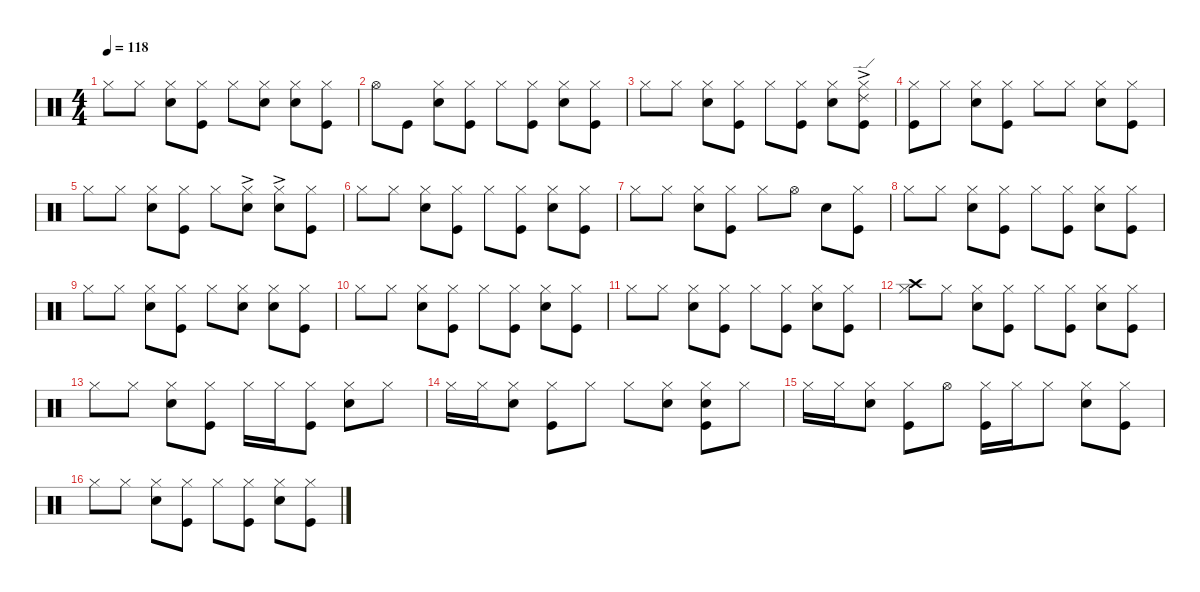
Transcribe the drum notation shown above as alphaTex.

\defaultSystemsLayout 4
\hideDynamics
\bracketExtendMode nobrackets
\singleTrackTrackNamePolicy hidden
\multiTrackTrackNamePolicy hidden
\firstSystemTrackNameMode fullname
\otherSystemsTrackNameOrientation horizontal
\track ("Drums" "drm.") {instrument percussion}
\staff {score}
\articulation defaults
\ts (4 4)
\tempo 118
\clef neutral
\ks c "Hi-Hat (closed)".8{dy f beam Down} "Hi-Hat (closed)".8{beam Down}
("Hi-Hat (closed)" "Snare (hit) 2").8{beam Down} ("Hi-Hat (closed)" "Kick (hit)").8{beam Down} "Hi-Hat (closed)".8{beam Down} ("Hi-Hat (closed)" "Snare (hit) 2").8{beam Down} ("Hi-Hat (closed)" "Snare (hit) 2").8{beam Down} ("Hi-Hat (closed)" "Kick (hit)").8{beam Down} |
"Hi-Hat (open)".8{beam Down} "Kick (hit)".8{beam Down} ("Hi-Hat (closed)" "Snare (hit) 2").8{beam Down} ("Hi-Hat (closed)" "Kick (hit)").8{beam Down} "Hi-Hat (closed)".8{beam Down} ("Hi-Hat (closed)" "Kick (hit)").8{beam Down} ("Hi-Hat (closed)" "Snare (hit) 2").8{beam Down} ("Hi-Hat (closed)" "Kick (hit)").8{beam Down} |
"Hi-Hat (closed)".8{beam Down} "Hi-Hat (closed)".8{beam Down} ("Hi-Hat (closed)" "Snare (hit) 2").8{beam Down} ("Hi-Hat (closed)" "Kick (hit)").8{beam Down} "Hi-Hat (closed)".8{beam Down} ("Hi-Hat (closed)" "Kick (hit)").8{beam Down} ("Hi-Hat (closed)" "Snare (hit) 2").8{beam Down} ("Hi-Hat (closed)" "Ride (edge) 2"{ac} "Kick (hit)").8{beam Down} |
("Hi-Hat (closed)" "Kick (hit)").8{beam Down} "Hi-Hat (closed)".8{beam Down} ("Hi-Hat (closed)" "Snare (hit) 2").8{beam Down} ("Hi-Hat (closed)" "Kick (hit)").8{beam Down} "Hi-Hat (closed)".8{beam Down} "Hi-Hat (closed)".8{beam Down} ("Hi-Hat (closed)" "Snare (hit) 2").8{beam Down} ("Hi-Hat (closed)" "Kick (hit)").8{beam Down} |
"Hi-Hat (closed)".8{beam Down} "Hi-Hat (closed)".8{beam Down} ("Hi-Hat (closed)" "Snare (hit) 2").8{beam Down} ("Hi-Hat (closed)" "Kick (hit)").8{beam Down} "Hi-Hat (closed)".8{beam Down} ("Hi-Hat (closed)" "Snare (hit) 2"{ac}).8{beam Down} ("Hi-Hat (closed)" "Snare (hit) 2"{ac}).8{beam Down} ("Hi-Hat (closed)" "Kick (hit)").8{beam Down} |
"Hi-Hat (closed)".8{beam Down} "Hi-Hat (closed)".8{beam Down} ("Hi-Hat (closed)" "Snare (hit) 2").8{beam Down} ("Hi-Hat (closed)" "Kick (hit)").8{beam Down} "Hi-Hat (closed)".8{beam Down} ("Hi-Hat (closed)" "Kick (hit)").8{beam Down} ("Hi-Hat (closed)" "Snare (hit) 2").8{beam Down} ("Hi-Hat (closed)" "Kick (hit)").8{beam Down} |
"Hi-Hat (closed)".8{beam Down} "Hi-Hat (closed)".8{beam Down} ("Hi-Hat (closed)" "Snare (hit) 2").8{beam Down} ("Hi-Hat (closed)" "Kick (hit)").8{beam Down} "Hi-Hat (closed)".8{beam Down} "Hi-Hat (open)".8{beam Down} "Snare (hit) 2".8{beam Down} ("Hi-Hat (closed)" "Kick (hit)").8{beam Down} |
"Hi-Hat (closed)".8{beam Down} "Hi-Hat (closed)".8{beam Down} ("Hi-Hat (closed)" "Snare (hit) 2").8{beam Down} ("Hi-Hat (closed)" "Kick (hit)").8{beam Down} "Hi-Hat (closed)".8{beam Down} ("Hi-Hat (closed)" "Kick (hit)").8{beam Down} ("Hi-Hat (closed)" "Snare (hit) 2").8{beam Down} ("Hi-Hat (closed)" "Kick (hit)").8{beam Down} |
"Hi-Hat (closed)".8{beam Down} "Hi-Hat (closed)".8{beam Down} ("Hi-Hat (closed)" "Snare (hit) 2").8{beam Down} ("Hi-Hat (closed)" "Kick (hit)").8{beam Down} "Hi-Hat (closed)".8{beam Down} ("Hi-Hat (closed)" "Snare (hit) 2").8{beam Down} ("Hi-Hat (closed)" "Snare (hit) 2").8{beam Down} ("Hi-Hat (closed)" "Kick (hit)").8{beam Down} |
"Hi-Hat (closed)".8{beam Down} "Hi-Hat (closed)".8{beam Down} ("Hi-Hat (closed)" "Snare (hit) 2").8{beam Down} ("Hi-Hat (closed)" "Kick (hit)").8{beam Down} "Hi-Hat (closed)".8{beam Down} ("Hi-Hat (closed)" "Kick (hit)").8{beam Down} ("Hi-Hat (closed)" "Snare (hit) 2").8{beam Down} ("Hi-Hat (closed)" "Kick (hit)").8{beam Down} |
"Hi-Hat (closed)".8{beam Down} "Hi-Hat (closed)".8{beam Down} ("Hi-Hat (closed)" "Snare (hit) 2").8{beam Down} ("Hi-Hat (closed)" "Kick (hit)").8{beam Down} "Hi-Hat (closed)".8{beam Down} ("Hi-Hat (closed)" "Kick (hit)").8{beam Down} ("Hi-Hat (closed)" "Snare (hit) 2").8{beam Down} ("Hi-Hat (closed)" "Kick (hit)").8{beam Down} |
("Hi-Hat (closed)" "Crash high (hit)").8{beam Down} "Hi-Hat (closed)".8{beam Down} ("Hi-Hat (closed)" "Snare (hit) 2").8{beam Down} ("Hi-Hat (closed)" "Kick (hit)").8{beam Down} "Hi-Hat (closed)".8{beam Down} ("Hi-Hat (closed)" "Kick (hit)").8{beam Down} ("Hi-Hat (closed)" "Snare (hit) 2").8{beam Down} ("Hi-Hat (closed)" "Kick (hit)").8{beam Down} |
"Hi-Hat (closed)".8{beam Down} "Hi-Hat (closed)".8{beam Down} ("Hi-Hat (closed)" "Snare (hit) 2").8{beam Down} ("Hi-Hat (closed)" "Kick (hit)").8{beam Down} "Hi-Hat (closed)".16{beam Down} "Hi-Hat (closed)".16{beam Down} ("Hi-Hat (closed)" "Kick (hit)").8{beam Down} ("Hi-Hat (closed)" "Snare (hit) 2").8{beam Down} "Hi-Hat (closed)".8{beam Down} |
"Hi-Hat (closed)".16{beam Down} "Hi-Hat (closed)".16{beam Down} ("Hi-Hat (closed)" "Snare (hit) 2").8{beam Down} ("Hi-Hat (closed)" "Kick (hit)").8{beam Down} "Hi-Hat (closed)".8{beam Down} "Hi-Hat (closed)".8{beam Down} ("Hi-Hat (closed)" "Snare (hit) 2").8{beam Down} ("Hi-Hat (closed)" "Snare (hit) 2" "Kick (hit)").8{beam Down} "Hi-Hat (closed)".8{beam Down} |
"Hi-Hat (closed)".16{beam Down} "Hi-Hat (closed)".16{beam Down} ("Hi-Hat (closed)" "Snare (hit) 2").8{beam Down} ("Hi-Hat (closed)" "Kick (hit)").8{beam Down} "Hi-Hat (open)".8{beam Down} ("Hi-Hat (closed)" "Kick (hit)").16{beam Down} "Hi-Hat (closed)".16{beam Down} "Hi-Hat (closed)".8{beam Down} ("Hi-Hat (closed)" "Snare (hit) 2").8{beam Down} ("Hi-Hat (closed)" "Kick (hit)").8{beam Down} |
"Hi-Hat (closed)".8{beam Down} "Hi-Hat (closed)".8{beam Down} ("Hi-Hat (closed)" "Snare (hit) 2").8{beam Down} ("Hi-Hat (closed)" "Kick (hit)").8{beam Down} "Hi-Hat (closed)".8{beam Down} ("Hi-Hat (closed)" "Kick (hit)").8{beam Down} ("Hi-Hat (closed)" "Snare (hit) 2").8{beam Down} ("Hi-Hat (closed)" "Kick (hit)").8{beam Down}
